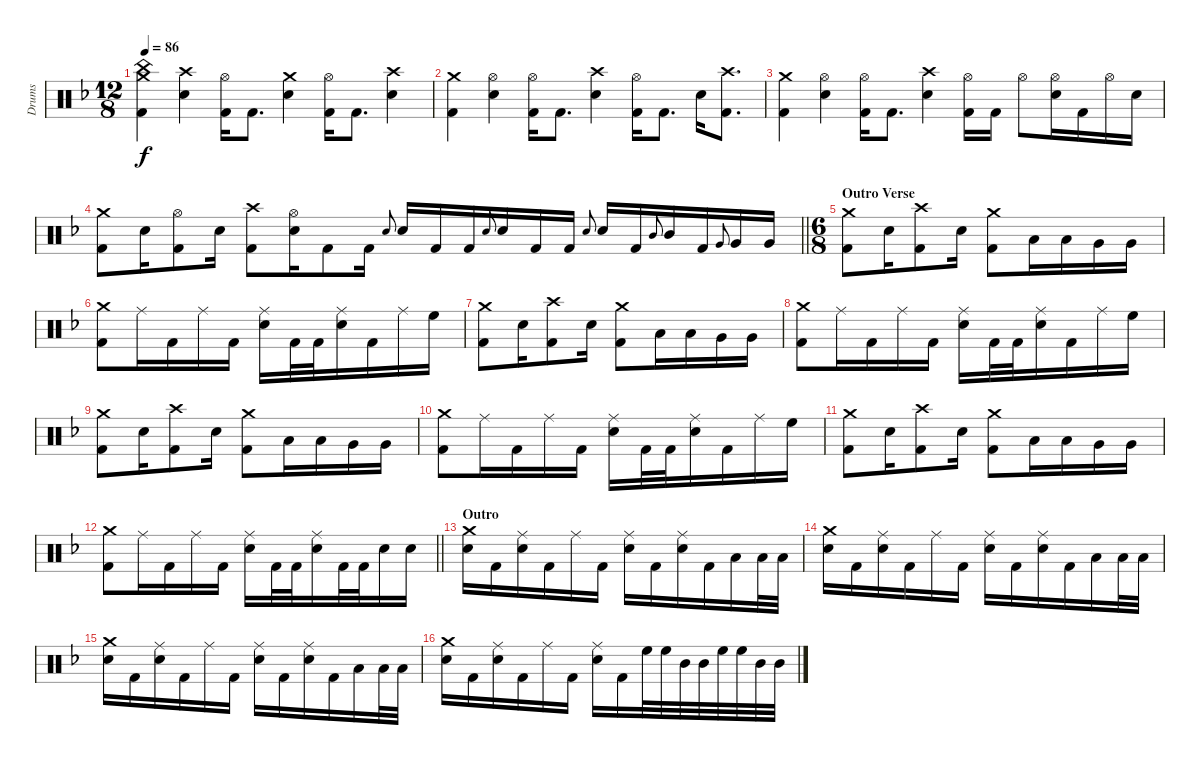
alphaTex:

\track ("Drums" "Drums") {instrument percussion}
\staff {score}
\articulation defaults
\ts (12 8)
\tempo 86
\clef neutral
\ks dminor
("Crash medium (hit)" "China (hit)" "Kick (hit) 2").4{dy f} ("Crash high (hit)" "Snare (hit) 2").4 ("Hi-Hat (open)" "Kick (hit) 2").16 "Kick (hit) 2".8{d} ("Crash medium (hit)" "Snare (hit) 2").4 ("Hi-Hat (open)" "Kick (hit) 2").16 "Kick (hit) 2".8{d} ("Crash high (hit)" "Snare (hit) 2").4 |
("Crash medium (hit)" "Kick (hit) 2").4 ("Hi-Hat (open)" "Snare (hit) 2").4 ("Hi-Hat (open)" "Kick (hit) 2").16 "Kick (hit) 2".8{d} ("Crash high (hit)" "Snare (hit) 2").4 ("Hi-Hat (open)" "Kick (hit) 2").16 "Kick (hit) 2".8{d} "Snare (hit) 2".16 ("Crash high (hit)" "Kick (hit) 2").8{d} |
("Crash medium (hit)" "Kick (hit) 2").4 ("Hi-Hat (open)" "Snare (hit) 2").4 ("Hi-Hat (open)" "Kick (hit) 2").16 "Kick (hit) 2".8{d} ("Crash high (hit)" "Snare (hit) 2").4 ("Hi-Hat (open)" "Kick (hit) 2").16 "Kick (hit) 2".16 "Hi-Hat (open)".8 ("Hi-Hat (open)" "Snare (hit) 2").16 "Kick (hit) 2".16 "Hi-Hat (open)".16 "Snare (hit) 2".16 |
\barLineRight lightlight
("Crash medium (hit)" "Kick (hit) 2").8 "Snare (hit) 2".16 ("Hi-Hat (open)" "Kick (hit) 2").8 "Snare (hit) 2".16 ("Crash high (hit)" "Kick (hit) 2").8 ("Hi-Hat (open)" "Snare (hit) 2").16 "Kick (hit) 2".8 "Kick (hit) 2".16 "Snare (hit) 2".8{gr onbeat} "Snare (hit) 2".16 "Kick (hit) 2".16 "Kick (hit) 2".16 "Snare (hit) 2".8{gr onbeat} "Snare (hit) 2".16 "Kick (hit) 2".16 "Kick (hit) 2".16 "Snare (hit) 2".8{gr onbeat} "Snare (hit) 2".16 "Kick (hit) 2".16 "Mid Tom (hit)".8{gr onbeat} "Mid Tom (hit)".16 "Kick (hit) 2".16 "Very Low Tom (hit)".8{gr onbeat} "Very Low Tom (hit)".16 "Very Low Tom (hit)".16 |
\ts (6 8)
\section ("" "Outro Verse")
("Crash medium (hit)" "Kick (hit) 2").8 "Snare (hit) 2".16 ("Crash high (hit)" "Kick (hit) 2").8 "Snare (hit) 2".16 ("Crash medium (hit)" "Kick (hit) 2").8 "Low Tom (hit)".16 "Low Tom (hit)".16 "Very Low Tom (hit)".16 "Very Low Tom (hit)".16 |
("Crash medium (hit)" "Kick (hit) 2").8 "Ride (middle)".16 "Kick (hit) 2".16 "Ride (middle)".16 "Kick (hit) 2".16 ("Ride (middle)" "Snare (hit) 2").16 "Kick (hit) 2".32 "Kick (hit) 2".32 ("Ride (middle)" "Snare (hit) 2").16 "Kick (hit) 2".16 "Ride (middle)".16 "High Floor Tom (hit)".16 |
("Crash medium (hit)" "Kick (hit) 2").8 "Snare (hit) 2".16 ("Crash high (hit)" "Kick (hit) 2").8 "Snare (hit) 2".16 ("Crash medium (hit)" "Kick (hit) 2").8 "Low Tom (hit)".16 "Low Tom (hit)".16 "Very Low Tom (hit)".16 "Very Low Tom (hit)".16 |
("Crash medium (hit)" "Kick (hit) 2").8 "Ride (middle)".16 "Kick (hit) 2".16 "Ride (middle)".16 "Kick (hit) 2".16 ("Ride (middle)" "Snare (hit) 2").16 "Kick (hit) 2".32 "Kick (hit) 2".32 ("Ride (middle)" "Snare (hit) 2").16 "Kick (hit) 2".16 "Ride (middle)".16 "High Floor Tom (hit)".16 |
("Crash medium (hit)" "Kick (hit) 2").8 "Snare (hit) 2".16 ("Crash high (hit)" "Kick (hit) 2").8 "Snare (hit) 2".16 ("Crash medium (hit)" "Kick (hit) 2").8 "Low Tom (hit)".16 "Low Tom (hit)".16 "Very Low Tom (hit)".16 "Very Low Tom (hit)".16 |
("Crash medium (hit)" "Kick (hit) 2").8 "Ride (middle)".16 "Kick (hit) 2".16 "Ride (middle)".16 "Kick (hit) 2".16 ("Ride (middle)" "Snare (hit) 2").16 "Kick (hit) 2".32 "Kick (hit) 2".32 ("Ride (middle)" "Snare (hit) 2").16 "Kick (hit) 2".16 "Ride (middle)".16 "High Floor Tom (hit)".16 |
("Crash medium (hit)" "Kick (hit) 2").8 "Snare (hit) 2".16 ("Crash high (hit)" "Kick (hit) 2").8 "Snare (hit) 2".16 ("Crash medium (hit)" "Kick (hit) 2").8 "Low Tom (hit)".16 "Low Tom (hit)".16 "Very Low Tom (hit)".16 "Very Low Tom (hit)".16 |
\barLineRight lightlight
("Crash medium (hit)" "Kick (hit) 2").8 "Ride (middle)".16 "Kick (hit) 2".16 "Ride (middle)".16 "Kick (hit) 2".16 ("Ride (middle)" "Snare (hit) 2").16 "Kick (hit) 2".32 "Kick (hit) 2".32 ("Ride (middle)" "Snare (hit) 2").16 "Kick (hit) 2".32 "Kick (hit) 2".32 "Snare (hit) 2".16 "Snare (hit) 2".16 |
\section ("" "Outro")
("Crash medium (hit)" "Snare (hit) 2").16 "Kick (hit) 2".16 ("Ride (middle)" "Snare (hit) 2").16 "Kick (hit) 2".16 "Ride (middle)".16 "Kick (hit) 2".16 ("Ride (middle)" "Snare (hit) 2").16 "Kick (hit) 2".16 ("Ride (middle)" "Snare (hit) 2").16 "Kick (hit) 2".16 "Low Tom (hit)".16 "Low Tom (hit)".32 "Low Tom (hit)".32 |
("Crash medium (hit)" "Snare (hit) 2").16 "Kick (hit) 2".16 ("Ride (middle)" "Snare (hit) 2").16 "Kick (hit) 2".16 "Ride (middle)".16 "Kick (hit) 2".16 ("Ride (middle)" "Snare (hit) 2").16 "Kick (hit) 2".16 ("Ride (middle)" "Snare (hit) 2").16 "Kick (hit) 2".16 "Low Tom (hit)".16 "Low Tom (hit)".32 "Low Tom (hit)".32 |
("Crash medium (hit)" "Snare (hit) 2").16 "Kick (hit) 2".16 ("Ride (middle)" "Snare (hit) 2").16 "Kick (hit) 2".16 "Ride (middle)".16 "Kick (hit) 2".16 ("Ride (middle)" "Snare (hit) 2").16 "Kick (hit) 2".16 ("Ride (middle)" "Snare (hit) 2").16 "Kick (hit) 2".16 "Low Tom (hit)".16 "Low Tom (hit)".32 "Low Tom (hit)".32 |
("Crash medium (hit)" "Snare (hit) 2").16 "Kick (hit) 2".16 ("Ride (middle)" "Snare (hit) 2").16 "Kick (hit) 2".16 "Ride (middle)".16 "Kick (hit) 2".16 ("Ride (middle)" "Snare (hit) 2").16 "Kick (hit) 2".16 "High Floor Tom (hit)".32 "High Floor Tom (hit)".32 "Mid Tom (hit)".32 "Mid Tom (hit)".32 "High Floor Tom (hit)".32 "High Floor Tom (hit)".32 "Mid Tom (hit)".32 "Mid Tom (hit)".32
